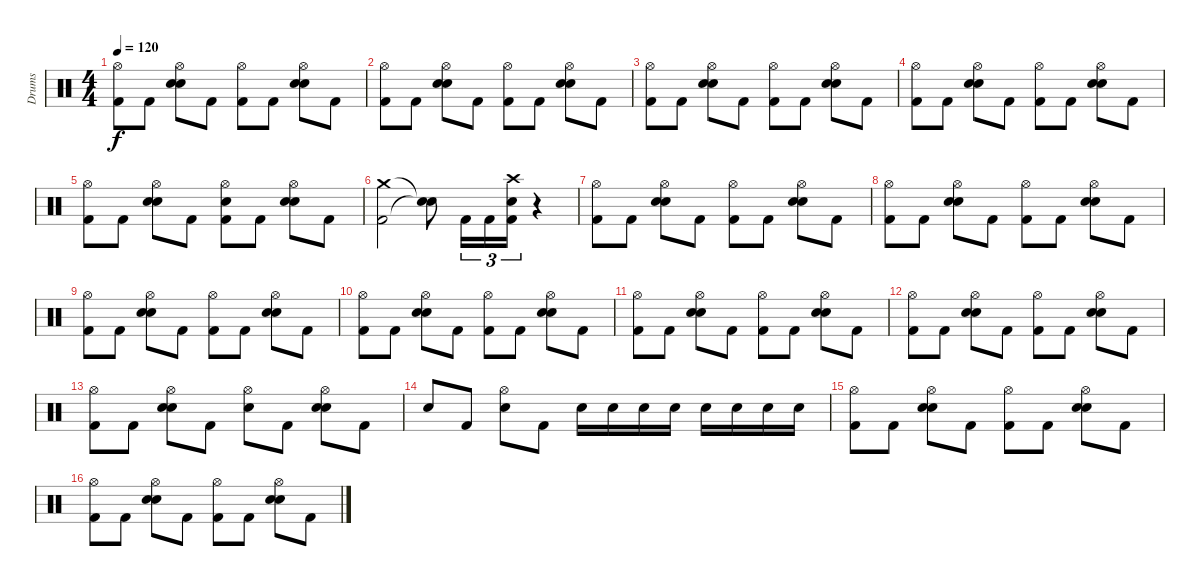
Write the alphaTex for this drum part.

\track ("Drums" "Drums") {instrument percussion}
\staff {score}
\articulation defaults
\ts (4 4)
\tempo 120
\clef neutral
\ks c
("Hi-Hat (open)" "Kick (hit) 2").8{dy f} "Kick (hit) 2".8 ("Hi-Hat (open)" "Electric Snare (hit)" "Snare (hit) 2").8 "Kick (hit) 2".8 ("Hi-Hat (open)" "Kick (hit) 2").8 "Kick (hit) 2".8 ("Hi-Hat (open)" "Electric Snare (hit)" "Snare (hit) 2").8 "Kick (hit) 2".8 |
("Hi-Hat (open)" "Kick (hit) 2").8 "Kick (hit) 2".8 ("Hi-Hat (open)" "Electric Snare (hit)" "Snare (hit) 2").8 "Kick (hit) 2".8 ("Hi-Hat (open)" "Kick (hit) 2").8 "Kick (hit) 2".8 ("Hi-Hat (open)" "Electric Snare (hit)" "Snare (hit) 2").8 "Kick (hit) 2".8 |
("Hi-Hat (open)" "Kick (hit) 2").8 "Kick (hit) 2".8 ("Hi-Hat (open)" "Electric Snare (hit)" "Snare (hit) 2").8 "Kick (hit) 2".8 ("Hi-Hat (open)" "Kick (hit) 2").8 "Kick (hit) 2".8 ("Hi-Hat (open)" "Electric Snare (hit)" "Snare (hit) 2").8 "Kick (hit) 2".8 |
("Hi-Hat (open)" "Kick (hit) 2").8 "Kick (hit) 2".8 ("Hi-Hat (open)" "Electric Snare (hit)" "Snare (hit) 2").8 "Kick (hit) 2".8 ("Hi-Hat (open)" "Kick (hit) 2").8 "Kick (hit) 2".8 ("Hi-Hat (open)" "Electric Snare (hit)" "Snare (hit) 2").8 "Kick (hit) 2".8 |
("Hi-Hat (open)" "Kick (hit) 2").8 "Kick (hit) 2".8 ("Hi-Hat (open)" "Electric Snare (hit)" "Snare (hit) 2").8 "Kick (hit) 2".8 ("Hi-Hat (open)" "Electric Snare (hit)" "Kick (hit) 2").8 "Kick (hit) 2".8 ("Hi-Hat (open)" "Electric Snare (hit)" "Snare (hit) 2").8 "Kick (hit) 2".8 |
("Crash medium (hit)" "Kick (hit) 2").2 ("Snare (hit)"{t} "Snare (hit)"{t}).8 "Kick (hit) 2".16{tu (3 2)} "Kick (hit) 2".16{tu (3 2)} ("Crash high (hit)" "Electric Snare (hit)" "Kick (hit) 2").16{tu (3 2)} r.4 |
("Hi-Hat (open)" "Kick (hit) 2").8 "Kick (hit) 2".8 ("Hi-Hat (open)" "Electric Snare (hit)" "Snare (hit) 2").8 "Kick (hit) 2".8 ("Hi-Hat (open)" "Kick (hit) 2").8 "Kick (hit) 2".8 ("Hi-Hat (open)" "Electric Snare (hit)" "Snare (hit) 2").8 "Kick (hit) 2".8 |
("Hi-Hat (open)" "Kick (hit) 2").8 "Kick (hit) 2".8 ("Hi-Hat (open)" "Electric Snare (hit)" "Snare (hit) 2").8 "Kick (hit) 2".8 ("Hi-Hat (open)" "Kick (hit) 2").8 "Kick (hit) 2".8 ("Hi-Hat (open)" "Electric Snare (hit)" "Snare (hit) 2").8 "Kick (hit) 2".8 |
("Hi-Hat (open)" "Kick (hit) 2").8 "Kick (hit) 2".8 ("Hi-Hat (open)" "Electric Snare (hit)" "Snare (hit) 2").8 "Kick (hit) 2".8 ("Hi-Hat (open)" "Kick (hit) 2").8 "Kick (hit) 2".8 ("Hi-Hat (open)" "Electric Snare (hit)" "Snare (hit) 2").8 "Kick (hit) 2".8 |
("Hi-Hat (open)" "Kick (hit) 2").8 "Kick (hit) 2".8 ("Hi-Hat (open)" "Electric Snare (hit)" "Snare (hit) 2").8 "Kick (hit) 2".8 ("Hi-Hat (open)" "Kick (hit) 2").8 "Kick (hit) 2".8 ("Hi-Hat (open)" "Electric Snare (hit)" "Snare (hit) 2").8 "Kick (hit) 2".8 |
("Hi-Hat (open)" "Kick (hit) 2").8 "Kick (hit) 2".8 ("Hi-Hat (open)" "Electric Snare (hit)" "Snare (hit) 2").8 "Kick (hit) 2".8 ("Hi-Hat (open)" "Kick (hit) 2").8 "Kick (hit) 2".8 ("Hi-Hat (open)" "Electric Snare (hit)" "Snare (hit) 2").8 "Kick (hit) 2".8 |
("Hi-Hat (open)" "Kick (hit) 2").8 "Kick (hit) 2".8 ("Hi-Hat (open)" "Electric Snare (hit)" "Snare (hit) 2").8 "Kick (hit) 2".8 ("Hi-Hat (open)" "Kick (hit) 2").8 "Kick (hit) 2".8 ("Hi-Hat (open)" "Electric Snare (hit)" "Snare (hit) 2").8 "Kick (hit) 2".8 |
("Hi-Hat (open)" "Kick (hit) 2").8 "Kick (hit) 2".8 ("Hi-Hat (open)" "Electric Snare (hit)" "Snare (hit) 2").8 "Kick (hit) 2".8 ("Hi-Hat (open)" "Electric Snare (hit)").8 "Kick (hit) 2".8 ("Hi-Hat (open)" "Electric Snare (hit)" "Snare (hit) 2").8 "Kick (hit) 2".8 |
"Electric Snare (hit)".8 "Kick (hit) 2".8 ("Hi-Hat (open)" "Electric Snare (hit)").8 "Kick (hit) 2".8 "Electric Snare (hit)".16 "Electric Snare (hit)".16 "Electric Snare (hit)".16 "Electric Snare (hit)".16 "Electric Snare (hit)".16 "Electric Snare (hit)".16 "Electric Snare (hit)".16 "Electric Snare (hit)".16 |
("Hi-Hat (open)" "Kick (hit) 2").8 "Kick (hit) 2".8 ("Hi-Hat (open)" "Electric Snare (hit)" "Snare (hit) 2").8 "Kick (hit) 2".8 ("Hi-Hat (open)" "Kick (hit) 2").8 "Kick (hit) 2".8 ("Hi-Hat (open)" "Electric Snare (hit)" "Snare (hit) 2").8 "Kick (hit) 2".8 |
("Hi-Hat (open)" "Kick (hit) 2").8 "Kick (hit) 2".8 ("Hi-Hat (open)" "Electric Snare (hit)" "Snare (hit) 2").8 "Kick (hit) 2".8 ("Hi-Hat (open)" "Kick (hit) 2").8 "Kick (hit) 2".8 ("Hi-Hat (open)" "Electric Snare (hit)" "Snare (hit) 2").8 "Kick (hit) 2".8
